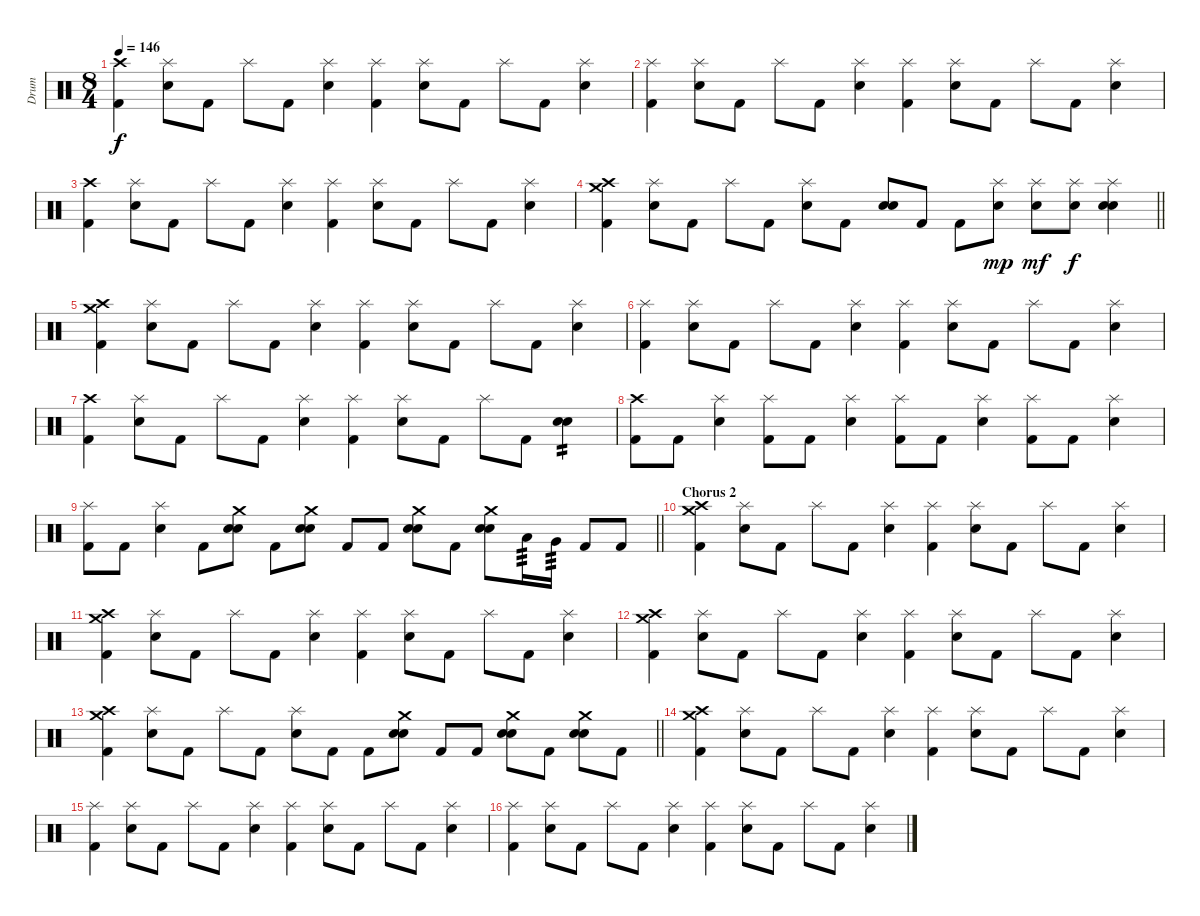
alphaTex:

\track ("Drum" "Drum") {instrument percussion}
\staff {score}
\articulation defaults
\ts (8 4)
\tempo 146
\clef neutral
\ks c
("Kick (hit) 2" "Crash high (hit)").4{dy f} ("Splash (hit)" "Electric Snare (hit)").8 "Kick (hit) 2".8 "Splash (hit)".8 "Kick (hit) 2".8 ("Splash (hit)" "Electric Snare (hit)").4 ("Splash (hit)" "Kick (hit) 2").4 ("Splash (hit)" "Electric Snare (hit)").8 "Kick (hit) 2".8 "Splash (hit)".8 "Kick (hit) 2".8 ("Splash (hit)" "Electric Snare (hit)").4 |
("Splash (hit)" "Kick (hit) 2").4 ("Splash (hit)" "Electric Snare (hit)").8 "Kick (hit) 2".8 "Splash (hit)".8 "Kick (hit) 2".8 ("Splash (hit)" "Electric Snare (hit)").4 ("Splash (hit)" "Kick (hit) 2").4 ("Splash (hit)" "Electric Snare (hit)").8 "Kick (hit) 2".8 "Splash (hit)".8 "Kick (hit) 2".8 ("Splash (hit)" "Electric Snare (hit)").4 |
("Kick (hit) 2" "Crash high (hit)").4 ("Splash (hit)" "Electric Snare (hit)").8 "Kick (hit) 2".8 "Splash (hit)".8 "Kick (hit) 2".8 ("Splash (hit)" "Electric Snare (hit)").4 ("Splash (hit)" "Kick (hit) 2").4 ("Splash (hit)" "Electric Snare (hit)").8 "Kick (hit) 2".8 "Splash (hit)".8 "Kick (hit) 2".8 ("Splash (hit)" "Electric Snare (hit)").4 |
\barLineRight lightlight
("Kick (hit) 2" "Crash high (hit)" "Crash medium (hit)").4 ("Splash (hit)" "Electric Snare (hit)").8 "Kick (hit) 2".8 "Splash (hit)".8 "Kick (hit) 2".8 ("Splash (hit)" "Electric Snare (hit)").8 "Kick (hit) 2".8 ("Electric Snare (hit)" "Electric Snare (hit)").8 "Kick (hit) 2".8 "Kick (hit) 2".8 ("Splash (hit)" "Electric Snare (hit)").8{dy mp} ("Splash (hit)" "Electric Snare (hit)").8{dy mf} ("Splash (hit)" "Electric Snare (hit)").8{dy f} ("Splash (hit)" "Electric Snare (hit)" "Electric Snare (hit)").4 |
\section ("" "")
("Kick (hit) 2" "Crash high (hit)" "Crash medium (hit)").4 ("Splash (hit)" "Electric Snare (hit)").8 "Kick (hit) 2".8 "Splash (hit)".8 "Kick (hit) 2".8 ("Splash (hit)" "Electric Snare (hit)").4 ("Splash (hit)" "Kick (hit) 2").4 ("Splash (hit)" "Electric Snare (hit)").8 "Kick (hit) 2".8 "Splash (hit)".8 "Kick (hit) 2".8 ("Splash (hit)" "Electric Snare (hit)").4 |
("Splash (hit)" "Kick (hit) 2").4 ("Splash (hit)" "Electric Snare (hit)").8 "Kick (hit) 2".8 "Splash (hit)".8 "Kick (hit) 2".8 ("Splash (hit)" "Electric Snare (hit)").4 ("Splash (hit)" "Kick (hit) 2").4 ("Splash (hit)" "Electric Snare (hit)").8 "Kick (hit) 2".8 "Splash (hit)".8 "Kick (hit) 2".8 ("Splash (hit)" "Electric Snare (hit)").4 |
("Kick (hit) 2" "Crash high (hit)").4 ("Splash (hit)" "Electric Snare (hit)").8 "Kick (hit) 2".8 "Splash (hit)".8 "Kick (hit) 2".8 ("Splash (hit)" "Electric Snare (hit)").4 ("Splash (hit)" "Kick (hit) 2").4 ("Splash (hit)" "Electric Snare (hit)").8 "Kick (hit) 2".8 "Splash (hit)".8 "Kick (hit) 2".8 ("Electric Snare (hit)" "Electric Snare (hit)").4{tp 2} |
("Kick (hit) 2" "Crash high (hit)").8 "Kick (hit) 2".8 ("Splash (hit)" "Electric Snare (hit)").4 ("Splash (hit)" "Kick (hit) 2").8 "Kick (hit) 2".8 ("Splash (hit)" "Electric Snare (hit)").4 ("Splash (hit)" "Kick (hit) 2").8 "Kick (hit) 2".8 ("Splash (hit)" "Electric Snare (hit)").4 ("Splash (hit)" "Kick (hit) 2").8 "Kick (hit) 2".8 ("Splash (hit)" "Electric Snare (hit)").4 |
\barLineRight lightlight
("Splash (hit)" "Kick (hit) 2").8 "Kick (hit) 2".8 ("Splash (hit)" "Electric Snare (hit)").4 "Kick (hit) 2".8 ("Electric Snare (hit)" "Electric Snare (hit)" "Crash medium (hit)").8 "Kick (hit) 2".8 ("Electric Snare (hit)" "Electric Snare (hit)" "Crash medium (hit)").8 "Kick (hit) 2".8 "Kick (hit) 2".8 ("Electric Snare (hit)" "Electric Snare (hit)" "Crash medium (hit)").8 "Kick (hit) 2".8 ("Electric Snare (hit)" "Electric Snare (hit)" "Crash medium (hit)").8 "Low Tom (hit)".16{tp 3} "Very Low Tom (hit)".16{tp 3} "Kick (hit) 2".8 "Kick (hit) 2".8 |
\section ("" "Chorus 2")
("Kick (hit) 2" "Crash high (hit)" "Crash medium (hit)").4 ("Splash (hit)" "Electric Snare (hit)").8 "Kick (hit) 2".8 "Splash (hit)".8 "Kick (hit) 2".8 ("Splash (hit)" "Electric Snare (hit)").4 ("Splash (hit)" "Kick (hit) 2").4 ("Splash (hit)" "Electric Snare (hit)").8 "Kick (hit) 2".8 "Splash (hit)".8 "Kick (hit) 2".8 ("Splash (hit)" "Electric Snare (hit)").4 |
("Kick (hit) 2" "Crash high (hit)" "Crash medium (hit)").4 ("Splash (hit)" "Electric Snare (hit)").8 "Kick (hit) 2".8 "Splash (hit)".8 "Kick (hit) 2".8 ("Splash (hit)" "Electric Snare (hit)").4 ("Splash (hit)" "Kick (hit) 2").4 ("Splash (hit)" "Electric Snare (hit)").8 "Kick (hit) 2".8 "Splash (hit)".8 "Kick (hit) 2".8 ("Splash (hit)" "Electric Snare (hit)").4 |
("Kick (hit) 2" "Crash high (hit)" "Crash medium (hit)").4 ("Splash (hit)" "Electric Snare (hit)").8 "Kick (hit) 2".8 "Splash (hit)".8 "Kick (hit) 2".8 ("Splash (hit)" "Electric Snare (hit)").4 ("Splash (hit)" "Kick (hit) 2").4 ("Splash (hit)" "Electric Snare (hit)").8 "Kick (hit) 2".8 "Splash (hit)".8 "Kick (hit) 2".8 ("Splash (hit)" "Electric Snare (hit)").4 |
\barLineRight lightlight
("Kick (hit) 2" "Crash high (hit)" "Crash medium (hit)").4 ("Splash (hit)" "Electric Snare (hit)").8 "Kick (hit) 2".8 "Splash (hit)".8 "Kick (hit) 2".8 ("Splash (hit)" "Electric Snare (hit)").8 "Kick (hit) 2".8 "Kick (hit) 2".8 ("Electric Snare (hit)" "Electric Snare (hit)" "Crash medium (hit)").8 "Kick (hit) 2".8 "Kick (hit) 2".8 ("Electric Snare (hit)" "Electric Snare (hit)" "Crash medium (hit)").8 "Kick (hit) 2".8 ("Electric Snare (hit)" "Electric Snare (hit)" "Crash medium (hit)").8 "Kick (hit) 2".8 |
\section ("" "")
("Kick (hit) 2" "Crash high (hit)" "Crash medium (hit)").4 ("Splash (hit)" "Electric Snare (hit)").8 "Kick (hit) 2".8 "Splash (hit)".8 "Kick (hit) 2".8 ("Splash (hit)" "Electric Snare (hit)").4 ("Splash (hit)" "Kick (hit) 2").4 ("Splash (hit)" "Electric Snare (hit)").8 "Kick (hit) 2".8 "Splash (hit)".8 "Kick (hit) 2".8 ("Splash (hit)" "Electric Snare (hit)").4 |
("Splash (hit)" "Kick (hit) 2").4 ("Splash (hit)" "Electric Snare (hit)").8 "Kick (hit) 2".8 "Splash (hit)".8 "Kick (hit) 2".8 ("Splash (hit)" "Electric Snare (hit)").4 ("Splash (hit)" "Kick (hit) 2").4 ("Splash (hit)" "Electric Snare (hit)").8 "Kick (hit) 2".8 "Splash (hit)".8 "Kick (hit) 2".8 ("Splash (hit)" "Electric Snare (hit)").4 |
("Splash (hit)" "Kick (hit) 2").4 ("Splash (hit)" "Electric Snare (hit)").8 "Kick (hit) 2".8 "Splash (hit)".8 "Kick (hit) 2".8 ("Splash (hit)" "Electric Snare (hit)").4 ("Splash (hit)" "Kick (hit) 2").4 ("Splash (hit)" "Electric Snare (hit)").8 "Kick (hit) 2".8 "Splash (hit)".8 "Kick (hit) 2".8 ("Splash (hit)" "Electric Snare (hit)").4
